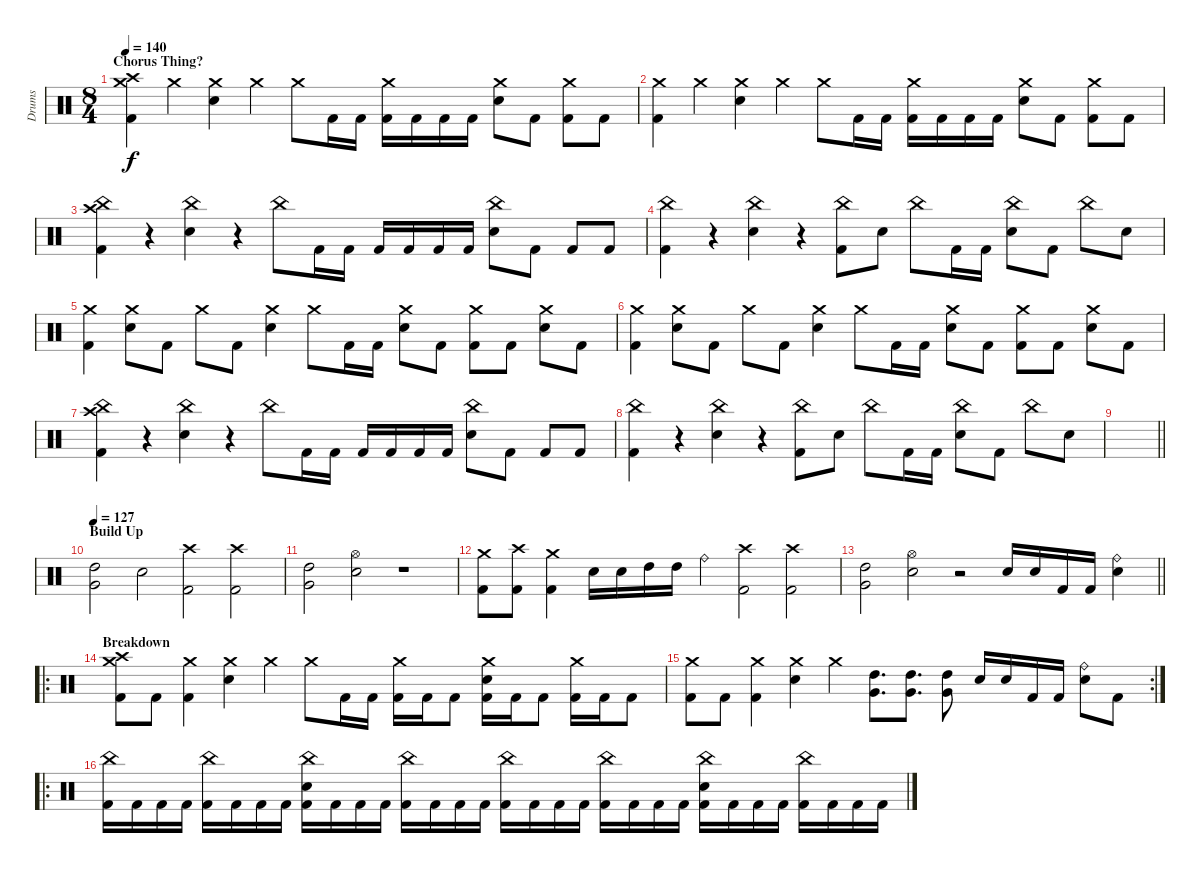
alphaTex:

\track ("Drums" "Drums") {instrument percussion}
\staff {score}
\articulation defaults
\ts (8 4)
\section ("" "Chorus Thing?")
\tempo 140
\clef neutral
\ks c
("Crash medium (hit)" "Crash high (hit)" "Kick (hit) 2").4{dy f} "Crash medium (hit)".4 ("Crash medium (hit)" "Snare (hit) 2").4 "Crash medium (hit)".4 "Crash medium (hit)".8 "Kick (hit) 2".16 "Kick (hit) 2".16 ("Crash medium (hit)" "Kick (hit) 2").16 "Kick (hit) 2".16 "Kick (hit) 2".16 "Kick (hit) 2".16 ("Crash medium (hit)" "Snare (hit) 2").8 "Kick (hit) 2".8 ("Crash medium (hit)" "Kick (hit) 2").8 "Kick (hit) 2".8 |
("Crash medium (hit)" "Kick (hit) 2").4 "Crash medium (hit)".4 ("Crash medium (hit)" "Snare (hit) 2").4 "Crash medium (hit)".4 "Crash medium (hit)".8 "Kick (hit) 2".16 "Kick (hit) 2".16 ("Crash medium (hit)" "Kick (hit) 2").16 "Kick (hit) 2".16 "Kick (hit) 2".16 "Kick (hit) 2".16 ("Crash medium (hit)" "Snare (hit) 2").8 "Kick (hit) 2".8 ("Crash medium (hit)" "Kick (hit) 2").8 "Kick (hit) 2".8 |
("China (hit)" "Crash high (hit)" "Kick (hit) 2").4 r.4 ("China (hit)" "Snare (hit) 2").4 r.4 "China (hit)".8 "Kick (hit) 2".16 "Kick (hit) 2".16 "Kick (hit) 2".16 "Kick (hit) 2".16 "Kick (hit) 2".16 "Kick (hit) 2".16 ("China (hit)" "Snare (hit) 2").8 "Kick (hit) 2".8 "Kick (hit) 2".8 "Kick (hit) 2".8 |
("China (hit)" "Kick (hit) 2").4 r.4 ("China (hit)" "Snare (hit) 2").4 r.4 ("China (hit)" "Kick (hit) 2").8 "Snare (hit) 2".8 "China (hit)".8 "Kick (hit) 2".16 "Kick (hit) 2".16 ("China (hit)" "Snare (hit) 2").8 "Kick (hit) 2".8 "China (hit)".8 "Snare (hit) 2".8 |
("Crash medium (hit)" "Kick (hit) 2").4 ("Crash medium (hit)" "Snare (hit) 2").8 "Kick (hit) 2".8 "Crash medium (hit)".8 "Kick (hit) 2".8 ("Crash medium (hit)" "Snare (hit) 2").4 "Crash medium (hit)".8 "Kick (hit) 2".16 "Kick (hit) 2".16 ("Crash medium (hit)" "Snare (hit) 2").8 "Kick (hit) 2".8 ("Crash medium (hit)" "Kick (hit) 2").8 "Kick (hit) 2".8 ("Crash medium (hit)" "Snare (hit) 2").8 "Kick (hit) 2".8 |
("Crash medium (hit)" "Kick (hit) 2").4 ("Crash medium (hit)" "Snare (hit) 2").8 "Kick (hit) 2".8 "Crash medium (hit)".8 "Kick (hit) 2".8 ("Crash medium (hit)" "Snare (hit) 2").4 "Crash medium (hit)".8 "Kick (hit) 2".16 "Kick (hit) 2".16 ("Crash medium (hit)" "Snare (hit) 2").8 "Kick (hit) 2".8 ("Crash medium (hit)" "Kick (hit) 2").8 "Kick (hit) 2".8 ("Crash medium (hit)" "Snare (hit) 2").8 "Kick (hit) 2".8 |
("China (hit)" "Crash high (hit)" "Kick (hit) 2").4 r.4 ("China (hit)" "Snare (hit) 2").4 r.4 "China (hit)".8 "Kick (hit) 2".16 "Kick (hit) 2".16 "Kick (hit) 2".16 "Kick (hit) 2".16 "Kick (hit) 2".16 "Kick (hit) 2".16 ("China (hit)" "Snare (hit) 2").8 "Kick (hit) 2".8 "Kick (hit) 2".8 "Kick (hit) 2".8 |
("China (hit)" "Kick (hit) 2").4 r.4 ("China (hit)" "Snare (hit) 2").4 r.4 ("China (hit)" "Kick (hit) 2").8 "Snare (hit) 2".8 "China (hit)".8 "Kick (hit) 2".16 "Kick (hit) 2".16 ("China (hit)" "Snare (hit) 2").8 "Kick (hit) 2".8 "China (hit)".8 "Snare (hit) 2".8 |
\barLineRight lightlight
|
\section ("" "Build Up")
\tempo 127
("High Tom (hit)" "Very Low Tom (hit)").2 "Snare (hit) 2".2 ("Crash high (hit)" "Kick (hit) 2").2 ("Crash high (hit)" "Kick (hit) 2").2 |
("High Tom (hit)" "Very Low Tom (hit)").2 ("Hi-Hat (open)" "Snare (hit) 2").2 r.1 |
("Crash medium (hit)" "Kick (hit) 2").8 ("Crash high (hit)" "Kick (hit) 2").8 ("Crash medium (hit)" "Kick (hit) 2").4 "Snare (hit) 2".16 "Snare (hit) 2".16 "High Tom (hit)".16 "High Tom (hit)".16 "Ride (bell)".4 ("Crash high (hit)" "Kick (hit) 2").2 ("Crash high (hit)" "Kick (hit) 2").2 |
\barLineRight lightlight
("High Tom (hit)" "Very Low Tom (hit)").2 ("Hi-Hat (open)" "Snare (hit) 2").2 r.2 "Snare (hit) 2".16 "Snare (hit) 2".16 "Kick (hit) 2".16 "Kick (hit) 2".16 ("Ride (bell)" "Snare (hit) 2").4 |
\ro
\section ("" "Breakdown")
("Crash medium (hit)" "Crash high (hit)" "Kick (hit) 2").8 "Kick (hit) 2".8 ("Crash medium (hit)" "Kick (hit) 2").4 ("Crash medium (hit)" "Snare (hit) 2").4 "Crash medium (hit)".4 "Crash medium (hit)".8 "Kick (hit) 2".16 "Kick (hit) 2".16 ("Crash medium (hit)" "Kick (hit) 2").16 "Kick (hit) 2".16 "Kick (hit) 2".8 ("Crash medium (hit)" "Snare (hit) 2" "Kick (hit) 2").16 "Kick (hit) 2".16 "Kick (hit) 2".8 ("Crash medium (hit)" "Kick (hit) 2").16 "Kick (hit) 2".16 "Kick (hit) 2".8 |
\rc 2
("Crash medium (hit)" "Kick (hit) 2").8 "Kick (hit) 2".8 ("Crash medium (hit)" "Kick (hit) 2").4 ("Crash medium (hit)" "Snare (hit) 2").4 "Crash medium (hit)".4 ("High Tom (hit)" "Very Low Tom (hit)").8{d} ("High Tom (hit)" "Very Low Tom (hit)").8{d} ("High Tom (hit)" "Very Low Tom (hit)").8 "Snare (hit) 2".16 "Snare (hit) 2".16 "Kick (hit) 2".16 "Kick (hit) 2".16 ("Ride (bell)" "Snare (hit) 2").8 "Kick (hit) 2".8 |
\ro
("China (hit)" "Kick (hit) 2").16 "Kick (hit) 2".16 "Kick (hit) 2".16 "Kick (hit) 2".16 ("China (hit)" "Kick (hit) 2").16 "Kick (hit) 2".16 "Kick (hit) 2".16 "Kick (hit) 2".16 ("China (hit)" "Snare (hit) 2" "Kick (hit) 2").16 "Kick (hit) 2".16 "Kick (hit) 2".16 "Kick (hit) 2".16 ("China (hit)" "Kick (hit) 2").16 "Kick (hit) 2".16 "Kick (hit) 2".16 "Kick (hit) 2".16 ("China (hit)" "Kick (hit) 2").16 "Kick (hit) 2".16 "Kick (hit) 2".16 "Kick (hit) 2".16 ("China (hit)" "Kick (hit) 2").16 "Kick (hit) 2".16 "Kick (hit) 2".16 "Kick (hit) 2".16 ("China (hit)" "Snare (hit) 2" "Kick (hit) 2").16 "Kick (hit) 2".16 "Kick (hit) 2".16 "Kick (hit) 2".16 ("China (hit)" "Kick (hit) 2").16 "Kick (hit) 2".16 "Kick (hit) 2".16 "Kick (hit) 2".16
